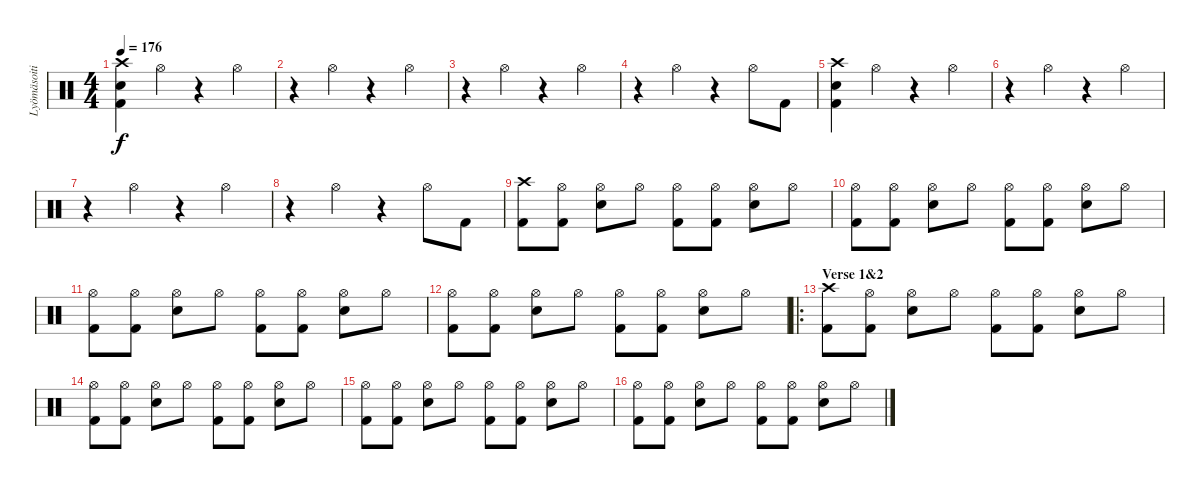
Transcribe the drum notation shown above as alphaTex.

\track ("Lyömäsoitin" "Lyömäsoiti") {instrument percussion}
\staff {score}
\articulation defaults
\ts (4 4)
\tempo 176
\clef neutral
\ks c
("Crash high (hit)" "Electric Snare (hit)" "Kick (hit) 2").4{dy f} "Hi-Hat (open)".4 r.4 "Hi-Hat (open)".4 |
r.4 "Hi-Hat (open)".4 r.4 "Hi-Hat (open)".4 |
r.4 "Hi-Hat (open)".4 r.4 "Hi-Hat (open)".4 |
r.4 "Hi-Hat (open)".4 r.4 "Hi-Hat (open)".8 "Kick (hit) 2".8 |
("Crash high (hit)" "Electric Snare (hit)" "Kick (hit) 2").4 "Hi-Hat (open)".4 r.4 "Hi-Hat (open)".4 |
r.4 "Hi-Hat (open)".4 r.4 "Hi-Hat (open)".4 |
r.4 "Hi-Hat (open)".4 r.4 "Hi-Hat (open)".4 |
r.4 "Hi-Hat (open)".4 r.4 "Hi-Hat (open)".8 "Kick (hit) 2".8 |
("Crash high (hit)" "Kick (hit) 2").8 ("Hi-Hat (open)" "Kick (hit) 2").8 ("Hi-Hat (open)" "Electric Snare (hit)").8 "Hi-Hat (open)".8 ("Hi-Hat (open)" "Kick (hit) 2").8 ("Hi-Hat (open)" "Kick (hit) 2").8 ("Hi-Hat (open)" "Electric Snare (hit)").8 "Hi-Hat (open)".8 |
("Hi-Hat (open)" "Kick (hit) 2").8 ("Hi-Hat (open)" "Kick (hit) 2").8 ("Hi-Hat (open)" "Electric Snare (hit)").8 "Hi-Hat (open)".8 ("Hi-Hat (open)" "Kick (hit) 2").8 ("Hi-Hat (open)" "Kick (hit) 2").8 ("Hi-Hat (open)" "Electric Snare (hit)").8 "Hi-Hat (open)".8 |
("Hi-Hat (open)" "Kick (hit) 2").8 ("Hi-Hat (open)" "Kick (hit) 2").8 ("Hi-Hat (open)" "Electric Snare (hit)").8 "Hi-Hat (open)".8 ("Hi-Hat (open)" "Kick (hit) 2").8 ("Hi-Hat (open)" "Kick (hit) 2").8 ("Hi-Hat (open)" "Electric Snare (hit)").8 "Hi-Hat (open)".8 |
("Hi-Hat (open)" "Kick (hit) 2").8 ("Hi-Hat (open)" "Kick (hit) 2").8 ("Hi-Hat (open)" "Electric Snare (hit)").8 "Hi-Hat (open)".8 ("Hi-Hat (open)" "Kick (hit) 2").8 ("Hi-Hat (open)" "Kick (hit) 2").8 ("Hi-Hat (open)" "Electric Snare (hit)").8 "Hi-Hat (open)".8 |
\ro
\section ("" "Verse 1&2")
("Crash high (hit)" "Kick (hit) 2").8 ("Hi-Hat (open)" "Kick (hit) 2").8 ("Hi-Hat (open)" "Electric Snare (hit)").8 "Hi-Hat (open)".8 ("Hi-Hat (open)" "Kick (hit) 2").8 ("Hi-Hat (open)" "Kick (hit) 2").8 ("Hi-Hat (open)" "Electric Snare (hit)").8 "Hi-Hat (open)".8 |
("Hi-Hat (open)" "Kick (hit) 2").8 ("Hi-Hat (open)" "Kick (hit) 2").8 ("Hi-Hat (open)" "Electric Snare (hit)").8 "Hi-Hat (open)".8 ("Hi-Hat (open)" "Kick (hit) 2").8 ("Hi-Hat (open)" "Kick (hit) 2").8 ("Hi-Hat (open)" "Electric Snare (hit)").8 "Hi-Hat (open)".8 |
("Hi-Hat (open)" "Kick (hit) 2").8 ("Hi-Hat (open)" "Kick (hit) 2").8 ("Hi-Hat (open)" "Electric Snare (hit)").8 "Hi-Hat (open)".8 ("Hi-Hat (open)" "Kick (hit) 2").8 ("Hi-Hat (open)" "Kick (hit) 2").8 ("Hi-Hat (open)" "Electric Snare (hit)").8 "Hi-Hat (open)".8 |
("Hi-Hat (open)" "Kick (hit) 2").8 ("Hi-Hat (open)" "Kick (hit) 2").8 ("Hi-Hat (open)" "Electric Snare (hit)").8 "Hi-Hat (open)".8 ("Hi-Hat (open)" "Kick (hit) 2").8 ("Hi-Hat (open)" "Kick (hit) 2").8 ("Hi-Hat (open)" "Electric Snare (hit)").8 "Hi-Hat (open)".8
